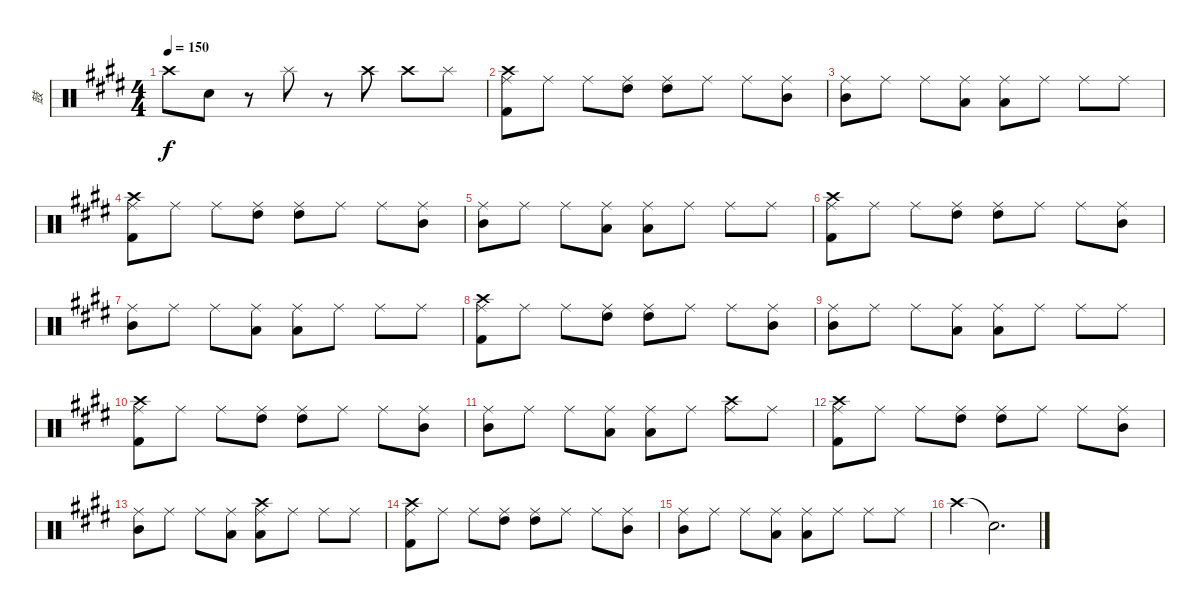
\track ("鼓" "鼓") {instrument percussion}
\staff {score}
\articulation defaults
\ts (4 4)
\tempo 150
\clef neutral
\ks e "Crash high (hit)".8{dy f} "Snare (hit) 2".8
r.8 "Splash (hit)".8 r.8 "Crash high (hit)".8 "Crash high (hit)".8 "Splash (hit)".8 |
("Crash high (hit)" "Ride (middle)" "Kick (hit) 2").8 "Ride (middle)".8 "Ride (middle)".8 ("High Tom (hit)" "Ride (middle)").8 ("High Tom (hit)" "Ride (middle)").8 "Ride (middle)".8 "Ride (middle)".8 ("Mid Tom (hit)" "Ride (middle)").8 |
("Mid Tom (hit)" "Ride (middle)").8 "Ride (middle)".8 "Ride (middle)".8 ("Low Floor Tom (hit)" "Ride (middle)").8 ("Low Floor Tom (hit)" "Ride (middle)").8 "Ride (middle)".8 "Ride (middle)".8 "Ride (middle)".8 |
("Crash high (hit)" "Ride (middle)" "Kick (hit) 2").8 "Ride (middle)".8 "Ride (middle)".8 ("High Tom (hit)" "Ride (middle)").8 ("High Tom (hit)" "Ride (middle)").8 "Ride (middle)".8 "Ride (middle)".8 ("Mid Tom (hit)" "Ride (middle)").8 |
("Mid Tom (hit)" "Ride (middle)").8 "Ride (middle)".8 "Ride (middle)".8 ("Low Floor Tom (hit)" "Ride (middle)").8 ("Low Floor Tom (hit)" "Ride (middle)").8 "Ride (middle)".8 "Ride (middle)".8 "Ride (middle)".8 |
("Crash high (hit)" "Ride (middle)" "Kick (hit) 2").8 "Ride (middle)".8 "Ride (middle)".8 ("High Tom (hit)" "Ride (middle)").8 ("High Tom (hit)" "Ride (middle)").8 "Ride (middle)".8 "Ride (middle)".8 ("Mid Tom (hit)" "Ride (middle)").8 |
("Mid Tom (hit)" "Ride (middle)").8 "Ride (middle)".8 "Ride (middle)".8 ("Low Floor Tom (hit)" "Ride (middle)").8 ("Low Floor Tom (hit)" "Ride (middle)").8 "Ride (middle)".8 "Ride (middle)".8 "Ride (middle)".8 |
("Crash high (hit)" "Ride (middle)" "Kick (hit) 2").8 "Ride (middle)".8 "Ride (middle)".8 ("High Tom (hit)" "Ride (middle)").8 ("High Tom (hit)" "Ride (middle)").8 "Ride (middle)".8 "Ride (middle)".8 ("Mid Tom (hit)" "Ride (middle)").8 |
("Mid Tom (hit)" "Ride (middle)").8 "Ride (middle)".8 "Ride (middle)".8 ("Low Floor Tom (hit)" "Ride (middle)").8 ("Low Floor Tom (hit)" "Ride (middle)").8 "Ride (middle)".8 "Ride (middle)".8 "Ride (middle)".8 |
("Crash high (hit)" "Ride (middle)" "Kick (hit) 2").8 "Ride (middle)".8 "Ride (middle)".8 ("High Tom (hit)" "Ride (middle)").8 ("High Tom (hit)" "Ride (middle)").8 "Ride (middle)".8 "Ride (middle)".8 ("Mid Tom (hit)" "Ride (middle)").8 |
("Mid Tom (hit)" "Ride (middle)").8 "Ride (middle)".8 "Ride (middle)".8 ("Low Floor Tom (hit)" "Ride (middle)").8 ("Low Floor Tom (hit)" "Ride (middle)").8 "Ride (middle)".8 ("Crash high (hit)" "Ride (middle)").8 "Ride (middle)".8 |
("Crash high (hit)" "Ride (middle)" "Kick (hit) 2").8 "Ride (middle)".8 "Ride (middle)".8 ("High Tom (hit)" "Ride (middle)").8 ("High Tom (hit)" "Ride (middle)").8 "Ride (middle)".8 "Ride (middle)".8 ("Mid Tom (hit)" "Ride (middle)").8 |
("Mid Tom (hit)" "Ride (middle)").8 "Ride (middle)".8 "Ride (middle)".8 ("Low Floor Tom (hit)" "Ride (middle)").8 ("Low Floor Tom (hit)" "Ride (middle)" "Crash high (hit)").8 "Ride (middle)".8 "Ride (middle)".8 "Ride (middle)".8 |
("Crash high (hit)" "Ride (middle)" "Kick (hit) 2").8 "Ride (middle)".8 "Ride (middle)".8 ("High Tom (hit)" "Ride (middle)").8 ("High Tom (hit)" "Ride (middle)").8 "Ride (middle)".8 "Ride (middle)".8 ("Mid Tom (hit)" "Ride (middle)").8 |
("Mid Tom (hit)" "Ride (middle)").8 "Ride (middle)".8 "Ride (middle)".8 ("Low Floor Tom (hit)" "Ride (middle)").8 ("Low Floor Tom (hit)" "Ride (middle)").8 "Ride (middle)".8 "Ride (middle)".8 "Ride (middle)".8 |
"Crash high (hit)".4 "Snare (hit)"{t}.2{d}
